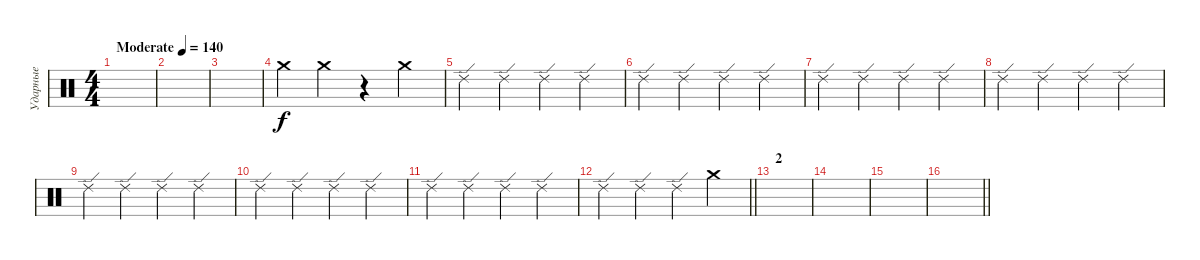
\track ("Ударные" "Ударные") {instrument percussion}
\staff {score}
\articulation defaults
\ts (4 4)
\tempo (140 "Moderate")
\clef neutral
\ks c
|
|
|
"Crash medium (hit)".4 "Crash medium (hit)".4 r.4 "Crash medium (hit)".4 |
"Ride (edge) 2".4 "Ride (edge) 2".4 "Ride (edge) 2".4 "Ride (edge) 2".4 |
"Ride (edge) 2".4 "Ride (edge) 2".4 "Ride (edge) 2".4 "Ride (edge) 2".4 |
"Ride (edge) 2".4 "Ride (edge) 2".4 "Ride (edge) 2".4 "Ride (edge) 2".4 |
"Ride (edge) 2".4 "Ride (edge) 2".4 "Ride (edge) 2".4 "Ride (edge) 2".4 |
"Ride (edge) 2".4 "Ride (edge) 2".4 "Ride (edge) 2".4 "Ride (edge) 2".4 |
"Ride (edge) 2".4 "Ride (edge) 2".4 "Ride (edge) 2".4 "Ride (edge) 2".4 |
"Ride (edge) 2".4 "Ride (edge) 2".4 "Ride (edge) 2".4 "Ride (edge) 2".4 |
\barLineRight lightlight "Ride (edge) 2".4 "Ride (edge) 2".4 "Ride (edge) 2".4 "Crash medium (hit)".4
|
\section ("" "2")
|
|
|
\barLineRight lightlight
